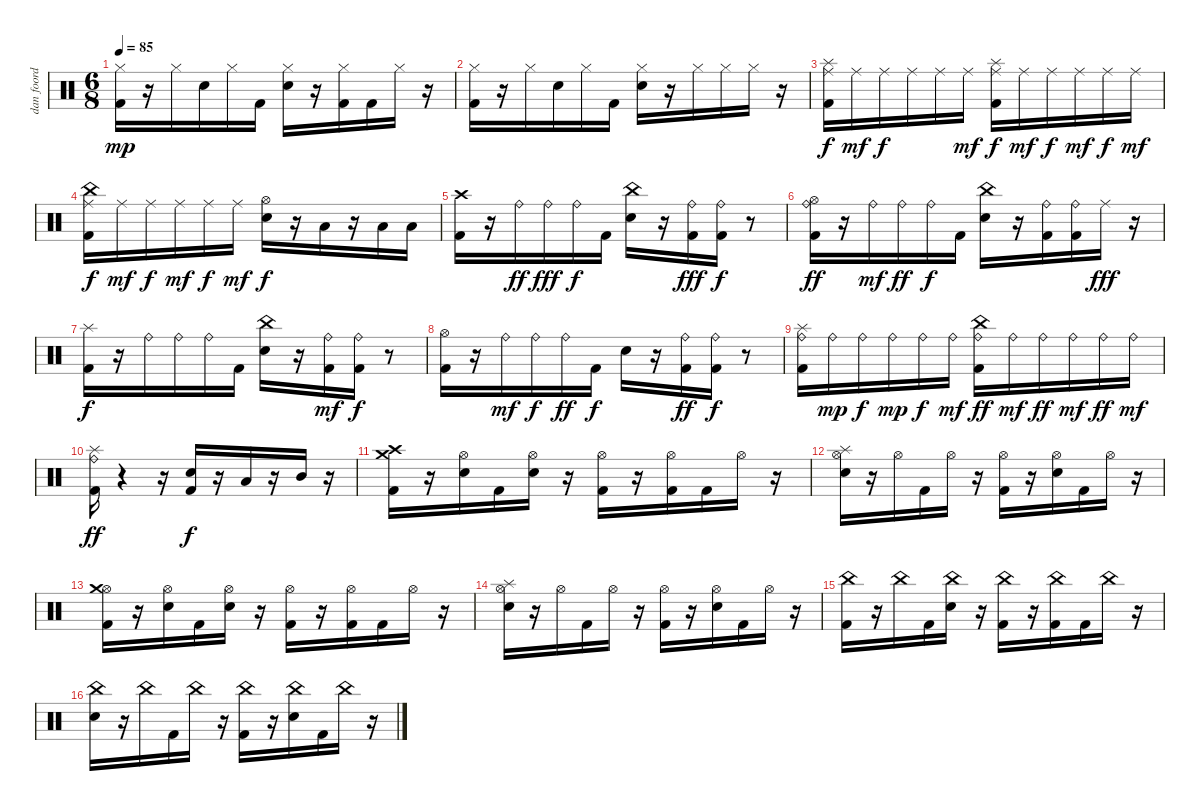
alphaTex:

\track ("dan foord" "dan foord") {instrument percussion}
\staff {score}
\articulation defaults
\ts (6 8)
\tempo 85
\clef neutral
\ks c
("Kick (hit) 2" "Hi-Hat (closed)").16{dy mp} r.16 "Hi-Hat (closed)".16 "Snare (hit) 2".16 "Hi-Hat (closed)".16 "Kick (hit) 2".16 ("Snare (hit) 2" "Hi-Hat (closed)").16 r.16 ("Kick (hit) 2" "Hi-Hat (closed)").16 "Kick (hit) 2".16 "Hi-Hat (closed)".16 r.16 |
("Kick (hit) 2" "Hi-Hat (closed)").16 r.16 "Hi-Hat (closed)".16 "Snare (hit) 2".16 "Hi-Hat (closed)".16 "Kick (hit) 2".16 ("Snare (hit) 2" "Hi-Hat (closed)").16 r.16 "Hi-Hat (closed)".16 "Hi-Hat (closed)".16 "Hi-Hat (closed)".16 r.16 |
("Kick (hit) 2" "Ride (middle)" "Splash (hit)").16{dy f} "Ride (middle)".16{dy mf} "Ride (middle)".16{dy f} "Ride (middle)".16 "Ride (middle)".16 "Ride (middle)".16{dy mf} ("Kick (hit) 2" "Ride (middle)" "Splash (hit)").16{dy f} "Ride (middle)".16{dy mf} "Ride (middle)".16{dy f} "Ride (middle)".16{dy mf} "Ride (middle)".16{dy f} "Ride (middle)".16{dy mf} |
("Kick (hit) 2" "Ride (middle)" "China (hit)").16{dy f} "Ride (middle)".16{dy mf} "Ride (middle)".16{dy f} "Ride (middle)".16{dy mf} "Ride (middle)".16{dy f} "Ride (middle)".16{dy mf} ("Snare (hit) 2" "Hi-Hat (open)").16{dy f} r.16 "Low Floor Tom (hit)".16 r.16 "Low Floor Tom (hit)".16 "Low Floor Tom (hit)".16 |
("Kick (hit) 2" "Crash high (hit)").16 r.16 "Ride (bell)".16{dy ff} "Ride (bell)".16{dy fff} "Ride (bell)".16{dy f} "Kick (hit) 2".16 ("Snare (hit) 2" "China (hit)").16 r.16 ("Kick (hit) 2" "Ride (bell)").16{dy fff} ("Kick (hit) 2" "Ride (bell)").16{dy f} r.8 |
("Kick (hit) 2" "Hi-Hat (open)" "Ride (bell)").16{dy ff} r.16 "Ride (bell)".16{dy mf} "Ride (bell)".16{dy ff} "Ride (bell)".16{dy f} "Kick (hit) 2".16 ("Snare (hit) 2" "China (hit)").16 r.16 ("Kick (hit) 2" "Ride (bell)").16 ("Kick (hit) 2" "Ride (bell)").16 "Ride (middle)".16{dy fff} r.16 |
("Kick (hit) 2" "Splash (hit)").16{dy f} r.16 "Ride (bell)".16 "Ride (bell)".16 "Ride (bell)".16 "Kick (hit) 2".16 ("Snare (hit) 2" "China (hit)").16 r.16 ("Kick (hit) 2" "Ride (bell)").16{dy mf} ("Kick (hit) 2" "Ride (bell)").16{dy f} r.8 |
("Kick (hit) 2" "Hi-Hat (open)").16 r.16 "Ride (bell)".16{dy mf} "Ride (bell)".16{dy f} "Ride (bell)".16{dy ff} "Kick (hit) 2".16{dy f} "Snare (hit) 2".16 r.16 ("Kick (hit) 2" "Ride (bell)").16{dy ff} ("Kick (hit) 2" "Ride (bell)").16{dy f} r.8 |
("Kick (hit) 2" "Ride (bell)" "Splash (hit)").16 "Ride (bell)".16{dy mp} "Ride (bell)".16{dy f} "Ride (bell)".16{dy mp} "Ride (bell)".16{dy f} "Ride (bell)".16{dy mf} ("Kick (hit) 2" "China (hit)" "Ride (bell)").16{dy ff} "Ride (bell)".16{dy mf} "Ride (bell)".16{dy ff} "Ride (bell)".16{dy mf} "Ride (bell)".16{dy ff} "Ride (bell)".16{dy mf} |
("Kick (hit) 2" "Ride (bell)" "Splash (hit)").16{dy ff} r.4 r.16 ("Kick (hit) 2" "Snare (hit) 2").16{dy f} r.16 "Low Floor Tom (hit)".16 r.16 "Mid Tom (hit)".16 r.16 |
("Kick (hit) 2" "Crash high (hit)" "Crash medium (hit)").16 r.16 ("Snare (hit) 2" "Hi-Hat (open)").16 "Kick (hit) 2".16 ("Snare (hit) 2" "Hi-Hat (open)").16 r.16 ("Kick (hit) 2" "Hi-Hat (open)").16 r.16 ("Kick (hit) 2" "Hi-Hat (open)").16 "Kick (hit) 2".16 "Hi-Hat (open)".16 r.16 |
("Snare (hit) 2" "Hi-Hat (open)" "Splash (hit)").16 r.16 "Hi-Hat (open)".16 "Kick (hit) 2".16 "Hi-Hat (open)".16 r.16 ("Kick (hit) 2" "Hi-Hat (open)").16 r.16 ("Snare (hit) 2" "Hi-Hat (open)").16 "Kick (hit) 2".16 "Hi-Hat (open)".16 r.16 |
("Kick (hit) 2" "Hi-Hat (open)" "Crash medium (hit)").16 r.16 ("Snare (hit) 2" "Hi-Hat (open)").16 "Kick (hit) 2".16 ("Snare (hit) 2" "Hi-Hat (open)").16 r.16 ("Kick (hit) 2" "Hi-Hat (open)").16 r.16 ("Kick (hit) 2" "Hi-Hat (open)").16 "Kick (hit) 2".16 "Hi-Hat (open)".16 r.16 |
("Snare (hit) 2" "Hi-Hat (open)" "Splash (hit)").16 r.16 "Hi-Hat (open)".16 "Kick (hit) 2".16 "Hi-Hat (open)".16 r.16 ("Kick (hit) 2" "Hi-Hat (open)").16 r.16 ("Snare (hit) 2" "Hi-Hat (open)").16 "Kick (hit) 2".16 "Hi-Hat (open)".16 r.16 |
("Kick (hit) 2" "China (hit)").16 r.16 "China (hit)".16 "Kick (hit) 2".16 ("Snare (hit) 2" "China (hit)").16 r.16 ("Kick (hit) 2" "China (hit)").16 r.16 ("Kick (hit) 2" "China (hit)").16 "Kick (hit) 2".16 "China (hit)".16 r.16 |
("Snare (hit) 2" "China (hit)").16 r.16 "China (hit)".16 "Kick (hit) 2".16 "China (hit)".16 r.16 ("Kick (hit) 2" "China (hit)").16 r.16 ("Snare (hit) 2" "China (hit)").16 "Kick (hit) 2".16 "China (hit)".16 r.16
